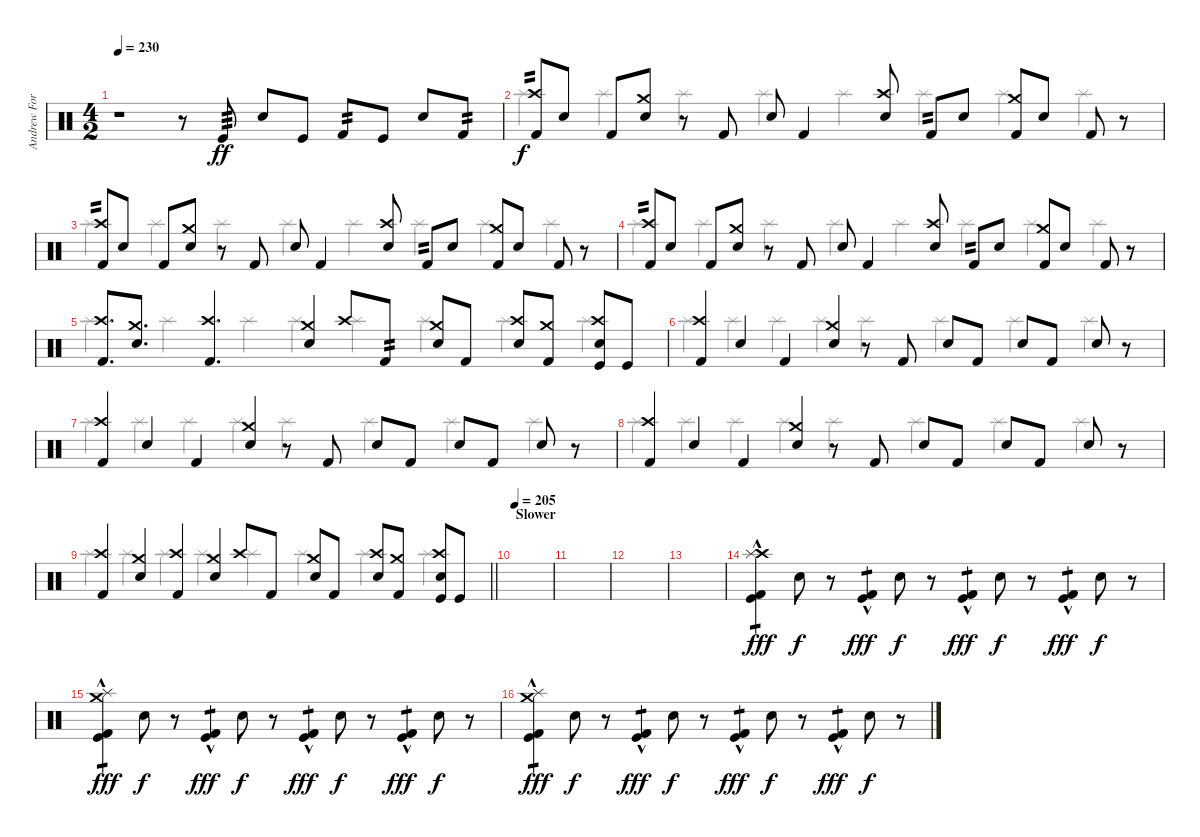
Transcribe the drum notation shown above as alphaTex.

\track ("Andrew Forsman" "Andrew For") {instrument percussion}
\staff {score}
\articulation defaults
\voice
\ts (4 2)
\tempo 230
\clef neutral
\ks c
r.1{dy f} r.8 "Kick (hit)".8{tp 3 dy ff} "Snare (hit) 2".8 "Kick (hit)".8 "Kick (hit) 2".8{tp 2} "Kick (hit)".8 "Snare (hit) 2".8 "Kick (hit) 2".8{tp 2} |
("Kick (hit) 2" "Crash high (hit)").8{tp 2 dy f} "Snare (hit) 2".8 "Kick (hit) 2".8 ("Snare (hit) 2" "Crash medium (hit)").8 r.8 "Kick (hit) 2".8 "Snare (hit) 2".8 "Kick (hit) 2".4 ("Snare (hit) 2" "Crash high (hit)").8 "Kick (hit) 2".8{tp 2} "Snare (hit) 2".8 ("Kick (hit) 2" "Crash medium (hit)").8 "Snare (hit) 2".8 "Kick (hit) 2".8 r.8 |
("Kick (hit) 2" "Crash high (hit)").8{tp 2} "Snare (hit) 2".8 "Kick (hit) 2".8 ("Snare (hit) 2" "Crash medium (hit)").8 r.8 "Kick (hit) 2".8 "Snare (hit) 2".8 "Kick (hit) 2".4 ("Snare (hit) 2" "Crash high (hit)").8 "Kick (hit) 2".8{tp 2} "Snare (hit) 2".8 ("Kick (hit) 2" "Crash medium (hit)").8 "Snare (hit) 2".8 "Kick (hit) 2".8 r.8 |
("Kick (hit) 2" "Crash high (hit)").8{tp 2} "Snare (hit) 2".8 "Kick (hit) 2".8 ("Snare (hit) 2" "Crash medium (hit)").8 r.8 "Kick (hit) 2".8 "Snare (hit) 2".8 "Kick (hit) 2".4 ("Snare (hit) 2" "Crash high (hit)").8 "Kick (hit) 2".8{tp 2} "Snare (hit) 2".8 ("Kick (hit) 2" "Crash medium (hit)").8 "Snare (hit) 2".8 "Kick (hit) 2".8 r.8 |
("Kick (hit) 2" "Crash high (hit)").8{d} ("Snare (hit) 2" "Crash medium (hit)").8{d} ("Kick (hit) 2" "Crash high (hit)").4{d} ("Snare (hit) 2" "Crash medium (hit)").4 "Crash high (hit)".8 "Kick (hit) 2".8{tp 2} ("Snare (hit) 2" "Crash medium (hit)").8 "Kick (hit) 2".8 ("Snare (hit) 2" "Crash high (hit)").8 ("Kick (hit) 2" "Crash medium (hit)").8 ("Kick (hit)" "Snare (hit) 2" "Crash high (hit)").8 "Kick (hit)".8 |
("Kick (hit) 2" "Crash high (hit)").4 "Snare (hit) 2".4 "Kick (hit) 2".4 ("Snare (hit) 2" "Crash medium (hit)").4 r.8 "Kick (hit) 2".8 "Snare (hit) 2".8 "Kick (hit) 2".8 "Snare (hit) 2".8 "Kick (hit) 2".8 "Snare (hit) 2".8 r.8 |
("Kick (hit) 2" "Crash high (hit)").4 "Snare (hit) 2".4 "Kick (hit) 2".4 ("Snare (hit) 2" "Crash medium (hit)").4 r.8 "Kick (hit) 2".8 "Snare (hit) 2".8 "Kick (hit) 2".8 "Snare (hit) 2".8 "Kick (hit) 2".8 "Snare (hit) 2".8 r.8 |
("Kick (hit) 2" "Crash high (hit)").4 "Snare (hit) 2".4 "Kick (hit) 2".4 ("Snare (hit) 2" "Crash medium (hit)").4 r.8 "Kick (hit) 2".8 "Snare (hit) 2".8 "Kick (hit) 2".8 "Snare (hit) 2".8 "Kick (hit) 2".8 "Snare (hit) 2".8 r.8 |
\barLineRight lightlight
("Kick (hit) 2" "Crash high (hit)").4 ("Snare (hit) 2" "Crash medium (hit)").4 ("Kick (hit) 2" "Crash high (hit)").4 ("Snare (hit) 2" "Crash medium (hit)").4 "Crash high (hit)".8 "Kick (hit) 2".8 ("Snare (hit) 2" "Crash medium (hit)").8 "Kick (hit) 2".8 ("Snare (hit) 2" "Crash high (hit)").8 ("Kick (hit) 2" "Crash medium (hit)").8 ("Kick (hit)" "Snare (hit) 2" "Crash high (hit)").8 "Kick (hit)".8 |
\section ("" "Slower")
\tempo 205
|
|
|
|
("Kick (hit) 2" "Kick (hit)"{hac} "Crash high (hit)" "Splash (hit)").4{tp 1 dy fff} "Snare (hit) 2".8{dy f} r.8 ("Kick (hit) 2" "Kick (hit)"{hac}).4{tp 1 dy fff} "Snare (hit) 2".8{dy f} r.8 ("Kick (hit) 2" "Kick (hit)"{hac}).4{tp 1 dy fff} "Snare (hit) 2".8{dy f} r.8 ("Kick (hit) 2" "Kick (hit)"{hac}).4{tp 1 dy fff} "Snare (hit) 2".8{dy f} r.8 |
("Kick (hit) 2" "Kick (hit)"{hac} "Crash medium (hit)" "Splash (hit)").4{tp 1 dy fff} "Snare (hit) 2".8{dy f} r.8 ("Kick (hit) 2" "Kick (hit)"{hac}).4{tp 1 dy fff} "Snare (hit) 2".8{dy f} r.8 ("Kick (hit) 2" "Kick (hit)"{hac}).4{tp 1 dy fff} "Snare (hit) 2".8{dy f} r.8 ("Kick (hit) 2" "Kick (hit)"{hac}).4{tp 1 dy fff} "Snare (hit) 2".8{dy f} r.8 |
("Kick (hit) 2" "Kick (hit)"{hac} "Crash medium (hit)" "Splash (hit)").4{tp 1 dy fff} "Snare (hit) 2".8{dy f} r.8 ("Kick (hit) 2" "Kick (hit)"{hac}).4{tp 1 dy fff} "Snare (hit) 2".8{dy f} r.8 ("Kick (hit) 2" "Kick (hit)"{hac}).4{tp 1 dy fff} "Snare (hit) 2".8{dy f} r.8 ("Kick (hit) 2" "Kick (hit)"{hac}).4{tp 1 dy fff} "Snare (hit) 2".8{dy f} r.8
\voice
\clef neutral
\ottava regular
\simile none
\ks c
|
"Splash (hit)".4 "Splash (hit)".4 "Splash (hit)".4 "Splash (hit)".4 "Splash (hit)".4 "Splash (hit)".4 "Splash (hit)".4 "Splash (hit)".4 |
"Splash (hit)".4 "Splash (hit)".4 "Splash (hit)".4 "Splash (hit)".4 "Splash (hit)".4 "Splash (hit)".4 "Splash (hit)".4 "Splash (hit)".4 |
"Splash (hit)".4 "Splash (hit)".4 "Splash (hit)".4 "Splash (hit)".4 "Splash (hit)".4 "Splash (hit)".4 "Splash (hit)".4 "Splash (hit)".4 |
"Splash (hit)".4 "Splash (hit)".4 "Splash (hit)".4 "Splash (hit)".4 "Splash (hit)".4 "Splash (hit)".4 "Splash (hit)".4 "Splash (hit)".4 |
"Splash (hit)".4 "Splash (hit)".4 "Splash (hit)".4 "Splash (hit)".4 "Splash (hit)".4 "Splash (hit)".4 "Splash (hit)".4 "Splash (hit)".4 |
"Splash (hit)".4 "Splash (hit)".4 "Splash (hit)".4 "Splash (hit)".4 "Splash (hit)".4 "Splash (hit)".4 "Splash (hit)".4 "Splash (hit)".4 |
"Splash (hit)".4 "Splash (hit)".4 "Splash (hit)".4 "Splash (hit)".4 "Splash (hit)".4 "Splash (hit)".4 "Splash (hit)".4 "Splash (hit)".4 |
\barLineRight lightlight "Splash (hit)".4 "Splash (hit)".4 "Splash (hit)".4 "Splash (hit)".4 "Splash (hit)".4 "Splash (hit)".4 "Splash (hit)".4 "Splash (hit)".4
|
|
|
|
|
|
|
